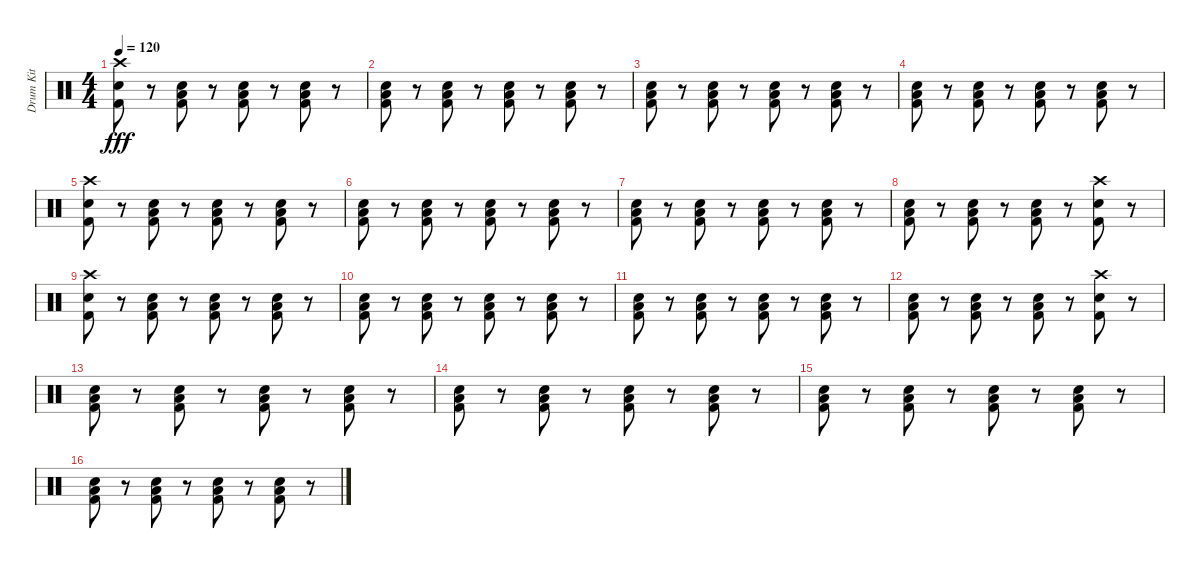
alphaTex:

\track ("Drum Kit" "Drum Kit") {instrument percussion}
\staff {score}
\articulation defaults
\ts (4 4)
\tempo 120
\clef neutral
\ks c
("Crash high (hit)" "Snare (hit) 2" "Kick (hit) 2").8{dy fff} r.8 ("Low Floor Tom (hit)" "Snare (hit) 2" "Kick (hit) 2").8 r.8 ("Low Floor Tom (hit)" "Snare (hit) 2" "Kick (hit) 2").8 r.8 ("Low Floor Tom (hit)" "Snare (hit) 2" "Kick (hit) 2").8 r.8 |
("Low Floor Tom (hit)" "Snare (hit) 2" "Kick (hit) 2").8 r.8 ("Low Floor Tom (hit)" "Snare (hit) 2" "Kick (hit) 2").8 r.8 ("Low Floor Tom (hit)" "Snare (hit) 2" "Kick (hit) 2").8 r.8 ("Low Floor Tom (hit)" "Snare (hit) 2" "Kick (hit) 2").8 r.8 |
("Low Floor Tom (hit)" "Snare (hit) 2" "Kick (hit) 2").8 r.8 ("Low Floor Tom (hit)" "Snare (hit) 2" "Kick (hit) 2").8 r.8 ("Low Floor Tom (hit)" "Snare (hit) 2" "Kick (hit) 2").8 r.8 ("Low Floor Tom (hit)" "Snare (hit) 2" "Kick (hit) 2").8 r.8 |
("Low Floor Tom (hit)" "Snare (hit) 2" "Kick (hit) 2").8 r.8 ("Low Floor Tom (hit)" "Snare (hit) 2" "Kick (hit) 2").8 r.8 ("Low Floor Tom (hit)" "Snare (hit) 2" "Kick (hit) 2").8 r.8 ("Low Floor Tom (hit)" "Snare (hit) 2" "Kick (hit) 2").8 r.8 |
("Crash high (hit)" "Snare (hit) 2" "Kick (hit) 2").8 r.8 ("Low Floor Tom (hit)" "Snare (hit) 2" "Kick (hit) 2").8 r.8 ("Low Floor Tom (hit)" "Snare (hit) 2" "Kick (hit) 2").8 r.8 ("Low Floor Tom (hit)" "Snare (hit) 2" "Kick (hit) 2").8 r.8 |
("Low Floor Tom (hit)" "Snare (hit) 2" "Kick (hit) 2").8 r.8 ("Low Floor Tom (hit)" "Snare (hit) 2" "Kick (hit) 2").8 r.8 ("Low Floor Tom (hit)" "Snare (hit) 2" "Kick (hit) 2").8 r.8 ("Low Floor Tom (hit)" "Snare (hit) 2" "Kick (hit) 2").8 r.8 |
("Low Floor Tom (hit)" "Snare (hit) 2" "Kick (hit) 2").8 r.8 ("Low Floor Tom (hit)" "Snare (hit) 2" "Kick (hit) 2").8 r.8 ("Low Floor Tom (hit)" "Snare (hit) 2" "Kick (hit) 2").8 r.8 ("Low Floor Tom (hit)" "Snare (hit) 2" "Kick (hit) 2").8 r.8 |
("Low Floor Tom (hit)" "Snare (hit) 2" "Kick (hit) 2").8 r.8 ("Low Floor Tom (hit)" "Snare (hit) 2" "Kick (hit) 2").8 r.8 ("Low Floor Tom (hit)" "Snare (hit) 2" "Kick (hit) 2").8 r.8 ("Crash high (hit)" "Snare (hit) 2" "Kick (hit) 2").8 r.8 |
("Crash high (hit)" "Snare (hit) 2" "Kick (hit) 2").8 r.8 ("Low Floor Tom (hit)" "Snare (hit) 2" "Kick (hit) 2").8 r.8 ("Low Floor Tom (hit)" "Snare (hit) 2" "Kick (hit) 2").8 r.8 ("Low Floor Tom (hit)" "Snare (hit) 2" "Kick (hit) 2").8 r.8 |
("Low Floor Tom (hit)" "Snare (hit) 2" "Kick (hit) 2").8 r.8 ("Low Floor Tom (hit)" "Snare (hit) 2" "Kick (hit) 2").8 r.8 ("Low Floor Tom (hit)" "Snare (hit) 2" "Kick (hit) 2").8 r.8 ("Low Floor Tom (hit)" "Snare (hit) 2" "Kick (hit) 2").8 r.8 |
("Low Floor Tom (hit)" "Snare (hit) 2" "Kick (hit) 2").8 r.8 ("Low Floor Tom (hit)" "Snare (hit) 2" "Kick (hit) 2").8 r.8 ("Low Floor Tom (hit)" "Snare (hit) 2" "Kick (hit) 2").8 r.8 ("Low Floor Tom (hit)" "Snare (hit) 2" "Kick (hit) 2").8 r.8 |
("Low Floor Tom (hit)" "Snare (hit) 2" "Kick (hit) 2").8 r.8 ("Low Floor Tom (hit)" "Snare (hit) 2" "Kick (hit) 2").8 r.8 ("Low Floor Tom (hit)" "Snare (hit) 2" "Kick (hit) 2").8 r.8 ("Crash high (hit)" "Snare (hit) 2" "Kick (hit) 2").8 r.8 |
("Low Floor Tom (hit)" "Snare (hit) 2" "Kick (hit) 2").8 r.8 ("Low Floor Tom (hit)" "Snare (hit) 2" "Kick (hit) 2").8 r.8 ("Low Floor Tom (hit)" "Snare (hit) 2" "Kick (hit) 2").8 r.8 ("Low Floor Tom (hit)" "Snare (hit) 2" "Kick (hit) 2").8 r.8 |
("Low Floor Tom (hit)" "Snare (hit) 2" "Kick (hit) 2").8 r.8 ("Low Floor Tom (hit)" "Snare (hit) 2" "Kick (hit) 2").8 r.8 ("Low Floor Tom (hit)" "Snare (hit) 2" "Kick (hit) 2").8 r.8 ("Low Floor Tom (hit)" "Snare (hit) 2" "Kick (hit) 2").8 r.8 |
("Low Floor Tom (hit)" "Snare (hit) 2" "Kick (hit) 2").8 r.8 ("Low Floor Tom (hit)" "Snare (hit) 2" "Kick (hit) 2").8 r.8 ("Low Floor Tom (hit)" "Snare (hit) 2" "Kick (hit) 2").8 r.8 ("Low Floor Tom (hit)" "Snare (hit) 2" "Kick (hit) 2").8 r.8 |
("Low Floor Tom (hit)" "Snare (hit) 2" "Kick (hit) 2").8 r.8 ("Low Floor Tom (hit)" "Snare (hit) 2" "Kick (hit) 2").8 r.8 ("Low Floor Tom (hit)" "Snare (hit) 2" "Kick (hit) 2").8 r.8 ("Low Floor Tom (hit)" "Snare (hit) 2" "Kick (hit) 2").8 r.8
